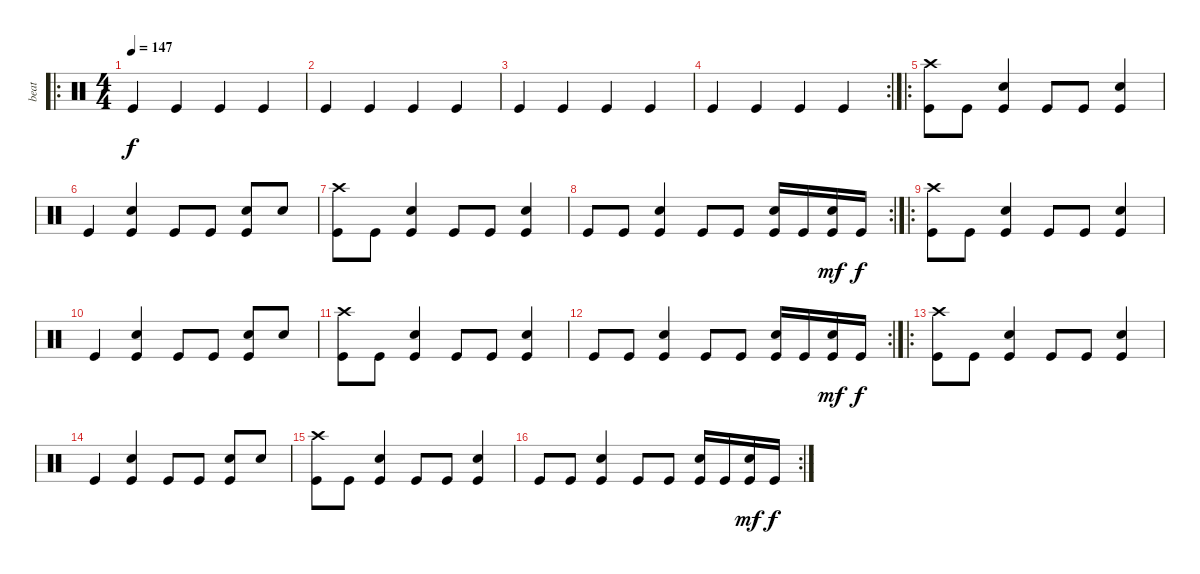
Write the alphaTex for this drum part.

\track ("beat" "beat") {instrument percussion}
\staff {score}
\articulation defaults
\ro
\ts (4 4)
\tempo 147
\clef neutral
\ks c "Kick (hit)".4{dy f} "Kick (hit)".4 "Kick (hit)".4 "Kick (hit)".4
|
"Kick (hit)".4 "Kick (hit)".4 "Kick (hit)".4 "Kick (hit)".4 |
"Kick (hit)".4 "Kick (hit)".4 "Kick (hit)".4 "Kick (hit)".4 |
\rc 2 "Kick (hit)".4 "Kick (hit)".4 "Kick (hit)".4 "Kick (hit)".4
|
\ro
("Kick (hit)" "Crash high (hit)").8 "Kick (hit)".8 ("Kick (hit)" "Electric Snare (hit)").4 "Kick (hit)".8 "Kick (hit)".8 ("Kick (hit)" "Electric Snare (hit)").4 |
"Kick (hit)".4 ("Kick (hit)" "Electric Snare (hit)").4 "Kick (hit)".8 "Kick (hit)".8 ("Kick (hit)" "Electric Snare (hit)").8 "Electric Snare (hit)".8 |
("Kick (hit)" "Crash high (hit)").8 "Kick (hit)".8 ("Kick (hit)" "Electric Snare (hit)").4 "Kick (hit)".8 "Kick (hit)".8 ("Kick (hit)" "Electric Snare (hit)").4 |
\rc 2 "Kick (hit)".8 "Kick (hit)".8
("Kick (hit)" "Electric Snare (hit)").4 "Kick (hit)".8 "Kick (hit)".8 ("Kick (hit)" "Electric Snare (hit)").16 "Kick (hit)".16 ("Kick (hit)" "Electric Snare (hit)").16{dy mf} "Kick (hit)".16{dy f} |
\ro
("Kick (hit)" "Crash high (hit)").8 "Kick (hit)".8 ("Kick (hit)" "Electric Snare (hit)").4 "Kick (hit)".8 "Kick (hit)".8 ("Kick (hit)" "Electric Snare (hit)").4 |
"Kick (hit)".4 ("Kick (hit)" "Electric Snare (hit)").4 "Kick (hit)".8 "Kick (hit)".8 ("Kick (hit)" "Electric Snare (hit)").8 "Electric Snare (hit)".8 |
("Kick (hit)" "Crash high (hit)").8 "Kick (hit)".8 ("Kick (hit)" "Electric Snare (hit)").4 "Kick (hit)".8 "Kick (hit)".8 ("Kick (hit)" "Electric Snare (hit)").4 |
\rc 2 "Kick (hit)".8 "Kick (hit)".8
("Kick (hit)" "Electric Snare (hit)").4 "Kick (hit)".8 "Kick (hit)".8 ("Kick (hit)" "Electric Snare (hit)").16 "Kick (hit)".16 ("Kick (hit)" "Electric Snare (hit)").16{dy mf} "Kick (hit)".16{dy f} |
\ro
("Kick (hit)" "Crash high (hit)").8 "Kick (hit)".8 ("Kick (hit)" "Electric Snare (hit)").4 "Kick (hit)".8 "Kick (hit)".8 ("Kick (hit)" "Electric Snare (hit)").4 |
"Kick (hit)".4 ("Kick (hit)" "Electric Snare (hit)").4 "Kick (hit)".8 "Kick (hit)".8 ("Kick (hit)" "Electric Snare (hit)").8 "Electric Snare (hit)".8 |
("Kick (hit)" "Crash high (hit)").8 "Kick (hit)".8 ("Kick (hit)" "Electric Snare (hit)").4 "Kick (hit)".8 "Kick (hit)".8 ("Kick (hit)" "Electric Snare (hit)").4 |
\rc 2 "Kick (hit)".8 "Kick (hit)".8
("Kick (hit)" "Electric Snare (hit)").4 "Kick (hit)".8 "Kick (hit)".8 ("Kick (hit)" "Electric Snare (hit)").16 "Kick (hit)".16 ("Kick (hit)" "Electric Snare (hit)").16{dy mf} "Kick (hit)".16{dy f}
